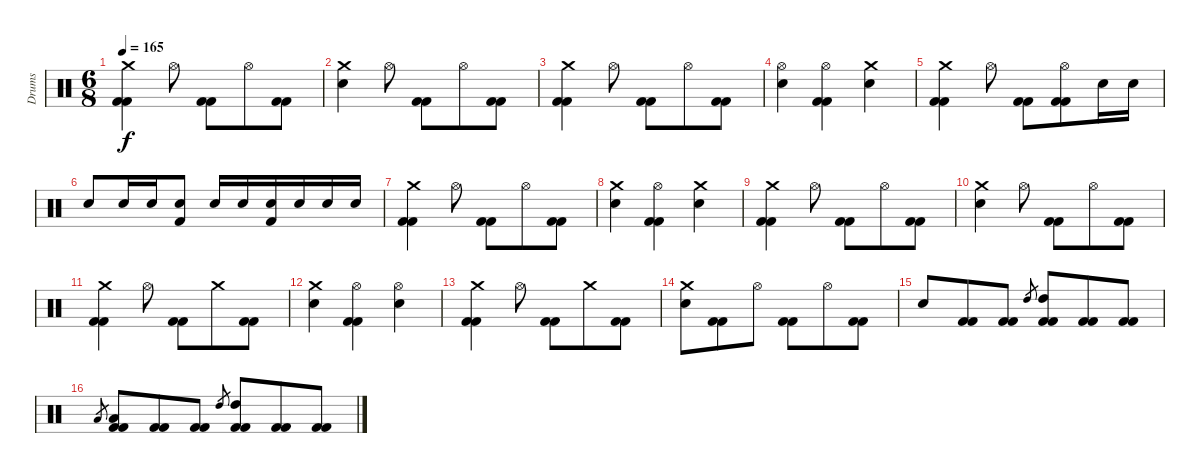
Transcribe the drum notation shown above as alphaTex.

\track ("Drums" "Drums") {instrument percussion}
\staff {score}
\articulation defaults
\ts (6 8)
\tempo 165
\clef neutral
\ks c
("Crash medium (hit)" "Kick (hit) 2" "Kick (hit) 2").4{dy f} "Hi-Hat (open)".8 ("Kick (hit) 2" "Kick (hit) 2").8 "Hi-Hat (open)".8 ("Kick (hit) 2" "Kick (hit) 2").8 |
("Crash medium (hit)" "Electric Snare (hit)").4 "Hi-Hat (open)".8 ("Kick (hit) 2" "Kick (hit) 2").8 "Hi-Hat (open)".8 ("Kick (hit) 2" "Kick (hit) 2").8 |
("Crash medium (hit)" "Kick (hit) 2" "Kick (hit) 2").4 "Hi-Hat (open)".8 ("Kick (hit) 2" "Kick (hit) 2").8 "Hi-Hat (open)".8 ("Kick (hit) 2" "Kick (hit) 2").8 |
("Hi-Hat (open)" "Electric Snare (hit)").4 ("Hi-Hat (open)" "Kick (hit) 2" "Kick (hit) 2").4 ("Crash medium (hit)" "Electric Snare (hit)").4 |
("Crash medium (hit)" "Kick (hit) 2" "Kick (hit) 2").4 "Hi-Hat (open)".8 ("Kick (hit) 2" "Kick (hit) 2").8 ("Hi-Hat (open)" "Kick (hit) 2" "Kick (hit) 2").8 "Electric Snare (hit)".16 "Electric Snare (hit)".16 |
"Electric Snare (hit)".8 "Electric Snare (hit)".16 "Electric Snare (hit)".16 ("Electric Snare (hit)" "Kick (hit) 2").8 "Electric Snare (hit)".16 "Electric Snare (hit)".16 ("Electric Snare (hit)" "Kick (hit) 2").16 "Electric Snare (hit)".16 "Electric Snare (hit)".16 "Electric Snare (hit)".16 |
("Crash medium (hit)" "Kick (hit) 2" "Kick (hit) 2").4 "Hi-Hat (open)".8 ("Kick (hit) 2" "Kick (hit) 2").8 "Hi-Hat (open)".8 ("Kick (hit) 2" "Kick (hit) 2").8 |
("Crash medium (hit)" "Electric Snare (hit)").4 ("Hi-Hat (open)" "Kick (hit) 2" "Kick (hit) 2").4 ("Crash medium (hit)" "Electric Snare (hit)").4 |
("Crash medium (hit)" "Kick (hit) 2" "Kick (hit) 2").4 "Hi-Hat (open)".8 ("Kick (hit) 2" "Kick (hit) 2").8 "Hi-Hat (open)".8 ("Kick (hit) 2" "Kick (hit) 2").8 |
("Crash medium (hit)" "Electric Snare (hit)").4 "Hi-Hat (open)".8 ("Kick (hit) 2" "Kick (hit) 2").8 "Hi-Hat (open)".8 ("Kick (hit) 2" "Kick (hit) 2").8 |
("Crash medium (hit)" "Kick (hit) 2" "Kick (hit) 2").4 "Hi-Hat (open)".8 ("Kick (hit) 2" "Kick (hit) 2").8 "Crash medium (hit)".8 ("Kick (hit) 2" "Kick (hit) 2").8 |
("Crash medium (hit)" "Electric Snare (hit)").4 ("Hi-Hat (open)" "Kick (hit) 2" "Kick (hit) 2").4 ("Hi-Hat (open)" "Electric Snare (hit)").4 |
("Crash medium (hit)" "Kick (hit) 2" "Kick (hit) 2").4 "Hi-Hat (open)".8 ("Kick (hit) 2" "Kick (hit) 2").8 "Crash medium (hit)".8 ("Kick (hit) 2" "Kick (hit) 2").8 |
("Crash medium (hit)" "Electric Snare (hit)").8 ("Kick (hit) 2" "Kick (hit) 2").8 "Hi-Hat (open)".8 ("Kick (hit) 2" "Kick (hit) 2").8 "Hi-Hat (open)".8 ("Kick (hit) 2" "Kick (hit) 2").8 |
"Electric Snare (hit)".8 ("Kick (hit) 2" "Kick (hit) 2").8 ("Kick (hit) 2" "Kick (hit) 2").8 "High Tom (hit)".8{gr} ("High Tom (hit)" "Kick (hit) 2" "Kick (hit) 2").8 ("Kick (hit) 2" "Kick (hit) 2").8 ("Kick (hit) 2" "Kick (hit) 2").8 |
"Low Tom (hit)".8{gr} ("Low Tom (hit)" "Kick (hit) 2" "Kick (hit) 2").8 ("Kick (hit) 2" "Kick (hit) 2").8 ("Kick (hit) 2" "Kick (hit) 2").8 "High Tom (hit)".8{gr} ("High Tom (hit)" "Kick (hit) 2" "Kick (hit) 2").8 ("Kick (hit) 2" "Kick (hit) 2").8 ("Kick (hit) 2" "Kick (hit) 2").8
